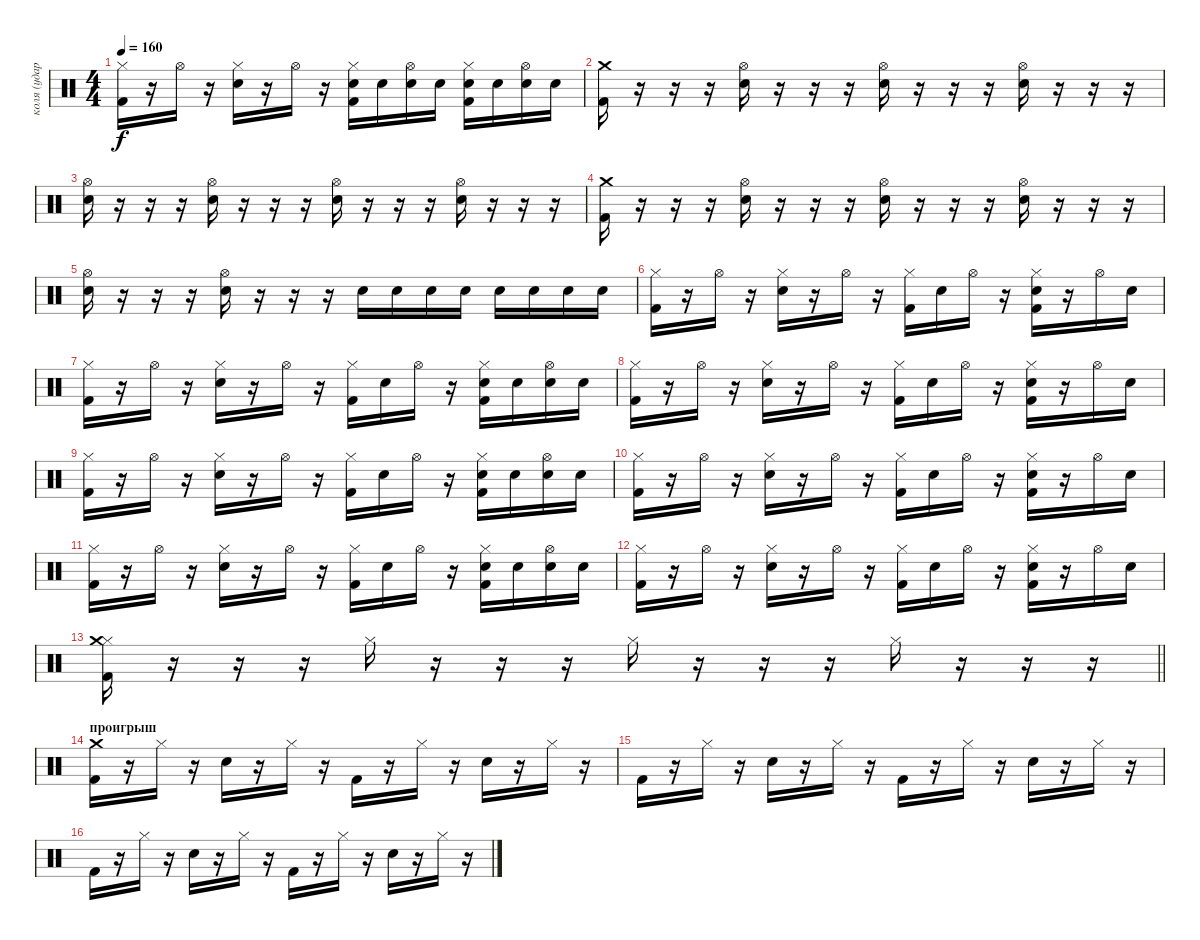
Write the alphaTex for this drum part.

\track ("коля (ударные)" "коля (удар") {instrument percussion}
\staff {score}
\articulation defaults
\ts (4 4)
\tempo 160
\clef neutral
\ks c
("Kick (hit) 2" "Hi-Hat (closed)").16{dy f} r.16 "Hi-Hat (open)".16 r.16 ("Snare (hit) 2" "Hi-Hat (closed)").16 r.16 "Hi-Hat (open)".16 r.16 ("Snare (hit) 2" "Kick (hit) 2" "Hi-Hat (closed)").16 "Snare (hit) 2".16 ("Snare (hit) 2" "Hi-Hat (open)").16 "Snare (hit) 2".16 ("Snare (hit) 2" "Kick (hit) 2" "Hi-Hat (closed)").16 "Snare (hit) 2".16 ("Snare (hit) 2" "Hi-Hat (open)").16 "Snare (hit) 2".16 |
("Kick (hit) 2" "Crash medium (hit)").16 r.16 r.16 r.16 ("Snare (hit) 2" "Hi-Hat (open)").16 r.16 r.16 r.16 ("Snare (hit) 2" "Hi-Hat (open)").16 r.16 r.16 r.16 ("Snare (hit) 2" "Hi-Hat (open)").16 r.16 r.16 r.16 |
("Snare (hit) 2" "Hi-Hat (open)").16 r.16 r.16 r.16 ("Snare (hit) 2" "Hi-Hat (open)").16 r.16 r.16 r.16 ("Snare (hit) 2" "Hi-Hat (open)").16 r.16 r.16 r.16 ("Snare (hit) 2" "Hi-Hat (open)").16 r.16 r.16 r.16 |
("Kick (hit) 2" "Crash medium (hit)").16 r.16 r.16 r.16 ("Snare (hit) 2" "Hi-Hat (open)").16 r.16 r.16 r.16 ("Snare (hit) 2" "Hi-Hat (open)").16 r.16 r.16 r.16 ("Snare (hit) 2" "Hi-Hat (open)").16 r.16 r.16 r.16 |
("Snare (hit) 2" "Hi-Hat (open)").16 r.16 r.16 r.16 ("Snare (hit) 2" "Hi-Hat (open)").16 r.16 r.16 r.16 "Snare (hit) 2".16 "Snare (hit) 2".16 "Snare (hit) 2".16 "Snare (hit) 2".16 "Snare (hit) 2".16 "Snare (hit) 2".16 "Snare (hit) 2".16 "Snare (hit) 2".16 |
("Kick (hit) 2" "Hi-Hat (closed)").16 r.16 "Hi-Hat (open)".16 r.16 ("Snare (hit) 2" "Hi-Hat (closed)").16 r.16 "Hi-Hat (open)".16 r.16 ("Kick (hit) 2" "Hi-Hat (closed)").16 "Snare (hit) 2".16 "Hi-Hat (open)".16 r.16 ("Snare (hit) 2" "Kick (hit) 2" "Hi-Hat (closed)").16 r.16 "Hi-Hat (open)".16 "Snare (hit) 2".16 |
("Kick (hit) 2" "Hi-Hat (closed)").16 r.16 "Hi-Hat (open)".16 r.16 ("Snare (hit) 2" "Hi-Hat (closed)").16 r.16 "Hi-Hat (open)".16 r.16 ("Kick (hit) 2" "Hi-Hat (closed)").16 "Snare (hit) 2".16 "Hi-Hat (open)".16 r.16 ("Snare (hit) 2" "Kick (hit) 2" "Hi-Hat (closed)").16 "Snare (hit) 2".16 ("Snare (hit) 2" "Hi-Hat (open)").16 "Snare (hit) 2".16 |
("Kick (hit) 2" "Hi-Hat (closed)").16 r.16 "Hi-Hat (open)".16 r.16 ("Snare (hit) 2" "Hi-Hat (closed)").16 r.16 "Hi-Hat (open)".16 r.16 ("Kick (hit) 2" "Hi-Hat (closed)").16 "Snare (hit) 2".16 "Hi-Hat (open)".16 r.16 ("Snare (hit) 2" "Kick (hit) 2" "Hi-Hat (closed)").16 r.16 "Hi-Hat (open)".16 "Snare (hit) 2".16 |
("Kick (hit) 2" "Hi-Hat (closed)").16 r.16 "Hi-Hat (open)".16 r.16 ("Snare (hit) 2" "Hi-Hat (closed)").16 r.16 "Hi-Hat (open)".16 r.16 ("Kick (hit) 2" "Hi-Hat (closed)").16 "Snare (hit) 2".16 "Hi-Hat (open)".16 r.16 ("Snare (hit) 2" "Kick (hit) 2" "Hi-Hat (closed)").16 "Snare (hit) 2".16 ("Snare (hit) 2" "Hi-Hat (open)").16 "Snare (hit) 2".16 |
("Kick (hit) 2" "Hi-Hat (closed)").16 r.16 "Hi-Hat (open)".16 r.16 ("Snare (hit) 2" "Hi-Hat (closed)").16 r.16 "Hi-Hat (open)".16 r.16 ("Kick (hit) 2" "Hi-Hat (closed)").16 "Snare (hit) 2".16 "Hi-Hat (open)".16 r.16 ("Snare (hit) 2" "Kick (hit) 2" "Hi-Hat (closed)").16 r.16 "Hi-Hat (open)".16 "Snare (hit) 2".16 |
("Kick (hit) 2" "Hi-Hat (closed)").16 r.16 "Hi-Hat (open)".16 r.16 ("Snare (hit) 2" "Hi-Hat (closed)").16 r.16 "Hi-Hat (open)".16 r.16 ("Kick (hit) 2" "Hi-Hat (closed)").16 "Snare (hit) 2".16 "Hi-Hat (open)".16 r.16 ("Snare (hit) 2" "Kick (hit) 2" "Hi-Hat (closed)").16 "Snare (hit) 2".16 ("Snare (hit) 2" "Hi-Hat (open)").16 "Snare (hit) 2".16 |
("Kick (hit) 2" "Hi-Hat (closed)").16 r.16 "Hi-Hat (open)".16 r.16 ("Snare (hit) 2" "Hi-Hat (closed)").16 r.16 "Hi-Hat (open)".16 r.16 ("Kick (hit) 2" "Hi-Hat (closed)").16 "Snare (hit) 2".16 "Hi-Hat (open)".16 r.16 ("Snare (hit) 2" "Kick (hit) 2" "Hi-Hat (closed)").16 r.16 "Hi-Hat (open)".16 "Snare (hit) 2".16 |
\barLineRight lightlight
("Kick (hit) 2" "Hi-Hat (closed)" "Crash medium (hit)").16 r.16 r.16 r.16 "Hi-Hat (closed)".16 r.16 r.16 r.16 "Hi-Hat (closed)".16 r.16 r.16 r.16 "Hi-Hat (closed)".16 r.16 r.16 r.16 |
\section ("" "проигрыш")
("Kick (hit) 2" "Crash medium (hit)").16 r.16 "Hi-Hat (closed)".16 r.16 "Snare (hit) 2".16 r.16 "Hi-Hat (closed)".16 r.16 "Kick (hit) 2".16 r.16 "Hi-Hat (closed)".16 r.16 "Snare (hit) 2".16 r.16 "Hi-Hat (closed)".16 r.16 |
"Kick (hit) 2".16 r.16 "Hi-Hat (closed)".16 r.16 "Snare (hit) 2".16 r.16 "Hi-Hat (closed)".16 r.16 "Kick (hit) 2".16 r.16 "Hi-Hat (closed)".16 r.16 "Snare (hit) 2".16 r.16 "Hi-Hat (closed)".16 r.16 |
"Kick (hit) 2".16 r.16 "Hi-Hat (closed)".16 r.16 "Snare (hit) 2".16 r.16 "Hi-Hat (closed)".16 r.16 "Kick (hit) 2".16 r.16 "Hi-Hat (closed)".16 r.16 "Snare (hit) 2".16 r.16 "Hi-Hat (closed)".16 r.16
